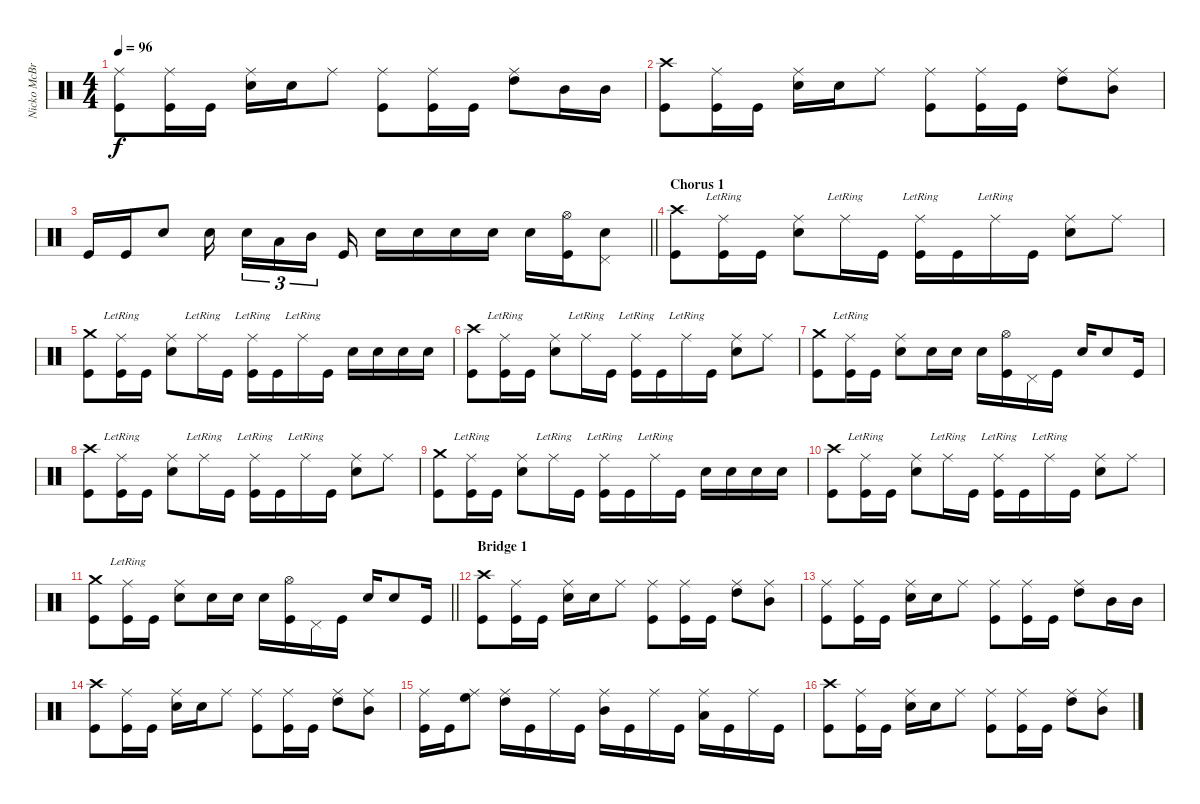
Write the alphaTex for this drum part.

\track ("Nicko McBrain" "Nicko McBr") {instrument percussion}
\staff {score}
\articulation defaults
\ts (4 4)
\tempo 96
\clef neutral
\ks c
("Ride (middle)" "Kick (hit)").8{dy f} ("Ride (middle)" "Kick (hit)").16 "Kick (hit)".16 ("Ride (middle)" "Electric Snare (hit)").16 "Electric Snare (hit)".16 "Ride (middle)".8 ("Ride (middle)" "Kick (hit)").8 ("Ride (middle)" "Kick (hit)").16 "Kick (hit)".16 ("Ride (middle)" "High Tom (hit)").8 "Mid Tom (hit)".16 "Mid Tom (hit)".16 |
("Crash high (hit)" "Kick (hit)").8 ("Ride (middle)" "Kick (hit)").16 "Kick (hit)".16 ("Ride (middle)" "Electric Snare (hit)").16 "Electric Snare (hit)".16 "Ride (middle)".8 ("Ride (middle)" "Kick (hit)").8 ("Ride (middle)" "Kick (hit)").16 "Kick (hit)".16 ("Ride (middle)" "High Tom (hit)").8 ("Ride (middle)" "Mid Tom (hit)").8 |
\barLineRight lightlight "Kick (hit)".16 "Kick (hit)".16 "Electric Snare (hit)".8 "Electric Snare (hit)".16{beam splitsecondary} "Electric Snare (hit)".16{tu (3 2)} "Low Tom (hit)".16{tu (3 2)} "Mid Tom (hit)".16{tu (3 2) beam splitsecondary} "Kick (hit)".16 "Electric Snare (hit)".16 "Electric Snare (hit)".16 "Electric Snare (hit)".16 "Electric Snare (hit)".16 "Electric Snare (hit)".16
("Hi-Hat (open)" "Kick (hit)").16 ("Electric Snare (hit)" "Pedal Hi-Hat (hit)").8 |
\section ("" "Chorus 1")
("Crash high (hit)" "Kick (hit)").8 ("Ride (middle)"{lr} "Kick (hit)").16 "Kick (hit)".16 ("Ride (middle)" "Electric Snare (hit)").8 "Ride (middle)"{lr}.16 "Kick (hit)".16 ("Ride (middle)"{lr} "Kick (hit)").16 "Kick (hit)".16 "Ride (middle)"{lr}.16 "Kick (hit)".16 ("Ride (middle)" "Electric Snare (hit)").8 "Ride (middle)".8 |
("Crash medium (hit)" "Kick (hit)").8 ("Ride (middle)"{lr} "Kick (hit)").16 "Kick (hit)".16 ("Ride (middle)" "Electric Snare (hit)").8 "Ride (middle)"{lr}.16 "Kick (hit)".16 ("Ride (middle)"{lr} "Kick (hit)").16 "Kick (hit)".16 "Ride (middle)"{lr}.16 "Kick (hit)".16 "Electric Snare (hit)".16 "Electric Snare (hit)".16 "Electric Snare (hit)".16 "Electric Snare (hit)".16 |
("Crash high (hit)" "Kick (hit)").8 ("Ride (middle)"{lr} "Kick (hit)").16 "Kick (hit)".16 ("Ride (middle)" "Electric Snare (hit)").8 "Ride (middle)"{lr}.16 "Kick (hit)".16 ("Ride (middle)"{lr} "Kick (hit)").16 "Kick (hit)".16 "Ride (middle)"{lr}.16 "Kick (hit)".16 ("Ride (middle)" "Electric Snare (hit)").8 "Ride (middle)".8 |
("Crash medium (hit)" "Kick (hit)").8 ("Ride (middle)"{lr} "Kick (hit)").16 "Kick (hit)".16 ("Ride (middle)" "Electric Snare (hit)").8 "Electric Snare (hit)".16 "Electric Snare (hit)".16 "Electric Snare (hit)".16 ("Hi-Hat (open)" "Kick (hit)").16 "Pedal Hi-Hat (hit)".16 "Kick (hit)".16 "Electric Snare (hit)".16 "Electric Snare (hit)".8 "Kick (hit)".16 |
("Crash high (hit)" "Kick (hit)").8 ("Ride (middle)"{lr} "Kick (hit)").16 "Kick (hit)".16 ("Ride (middle)" "Electric Snare (hit)").8 "Ride (middle)"{lr}.16 "Kick (hit)".16 ("Ride (middle)"{lr} "Kick (hit)").16 "Kick (hit)".16 "Ride (middle)"{lr}.16 "Kick (hit)".16 ("Ride (middle)" "Electric Snare (hit)").8 "Ride (middle)".8 |
("Crash medium (hit)" "Kick (hit)").8 ("Ride (middle)"{lr} "Kick (hit)").16 "Kick (hit)".16 ("Ride (middle)" "Electric Snare (hit)").8 "Ride (middle)"{lr}.16 "Kick (hit)".16 ("Ride (middle)"{lr} "Kick (hit)").16 "Kick (hit)".16 "Ride (middle)"{lr}.16 "Kick (hit)".16 "Electric Snare (hit)".16 "Electric Snare (hit)".16 "Electric Snare (hit)".16 "Electric Snare (hit)".16 |
("Crash high (hit)" "Kick (hit)").8 ("Ride (middle)"{lr} "Kick (hit)").16 "Kick (hit)".16 ("Ride (middle)" "Electric Snare (hit)").8 "Ride (middle)"{lr}.16 "Kick (hit)".16 ("Ride (middle)"{lr} "Kick (hit)").16 "Kick (hit)".16 "Ride (middle)"{lr}.16 "Kick (hit)".16 ("Ride (middle)" "Electric Snare (hit)").8 "Ride (middle)".8 |
\barLineRight lightlight
("Crash medium (hit)" "Kick (hit)").8 ("Ride (middle)"{lr} "Kick (hit)").16 "Kick (hit)".16 ("Ride (middle)" "Electric Snare (hit)").8 "Electric Snare (hit)".16 "Electric Snare (hit)".16 "Electric Snare (hit)".16 ("Hi-Hat (open)" "Kick (hit)").16 "Pedal Hi-Hat (hit)".16 "Kick (hit)".16 "Electric Snare (hit)".16 "Electric Snare (hit)".8 "Kick (hit)".16 |
\section ("" "Bridge 1")
("Crash high (hit)" "Kick (hit)").8 ("Ride (middle)" "Kick (hit)").16 "Kick (hit)".16 ("Ride (middle)" "Electric Snare (hit)").16 "Electric Snare (hit)".16 "Ride (middle)".8 ("Ride (middle)" "Kick (hit)").8 ("Ride (middle)" "Kick (hit)").16 "Kick (hit)".16 ("Ride (middle)" "High Tom (hit)").8 ("Ride (middle)" "Mid Tom (hit)").8 |
("Ride (middle)" "Kick (hit)").8 ("Ride (middle)" "Kick (hit)").16 "Kick (hit)".16 ("Ride (middle)" "Electric Snare (hit)").16 "Electric Snare (hit)".16 "Ride (middle)".8 ("Ride (middle)" "Kick (hit)").8 ("Ride (middle)" "Kick (hit)").16 "Kick (hit)".16 ("Ride (middle)" "High Tom (hit)").8 "Mid Tom (hit)".16 "Mid Tom (hit)".16 |
("Crash high (hit)" "Kick (hit)").8 ("Ride (middle)" "Kick (hit)").16 "Kick (hit)".16 ("Ride (middle)" "Electric Snare (hit)").16 "Electric Snare (hit)".16 "Ride (middle)".8 ("Ride (middle)" "Kick (hit)").8 ("Ride (middle)" "Kick (hit)").16 "Kick (hit)".16 ("Ride (middle)" "High Tom (hit)").8 ("Ride (middle)" "Mid Tom (hit)").8 |
("Ride (middle)" "Kick (hit)").16 "Kick (hit)".16 ("Ride (middle)" "High Floor Tom (hit)").8 ("Ride (middle)" "High Tom (hit)").16 "Kick (hit)".16 "Ride (middle)".16 "Kick (hit)".16 ("Ride (middle)" "Mid Tom (hit)").16 "Kick (hit)".16 "Ride (middle)".16 "Kick (hit)".16 ("Ride (middle)" "Low Tom (hit)").16 "Kick (hit)".16 "Ride (middle)".16 "Kick (hit)".16 |
("Crash high (hit)" "Kick (hit)").8 ("Ride (middle)" "Kick (hit)").16 "Kick (hit)".16 ("Ride (middle)" "Electric Snare (hit)").16 "Electric Snare (hit)".16 "Ride (middle)".8 ("Ride (middle)" "Kick (hit)").8 ("Ride (middle)" "Kick (hit)").16 "Kick (hit)".16 ("Ride (middle)" "High Tom (hit)").8 ("Ride (middle)" "Mid Tom (hit)").8
